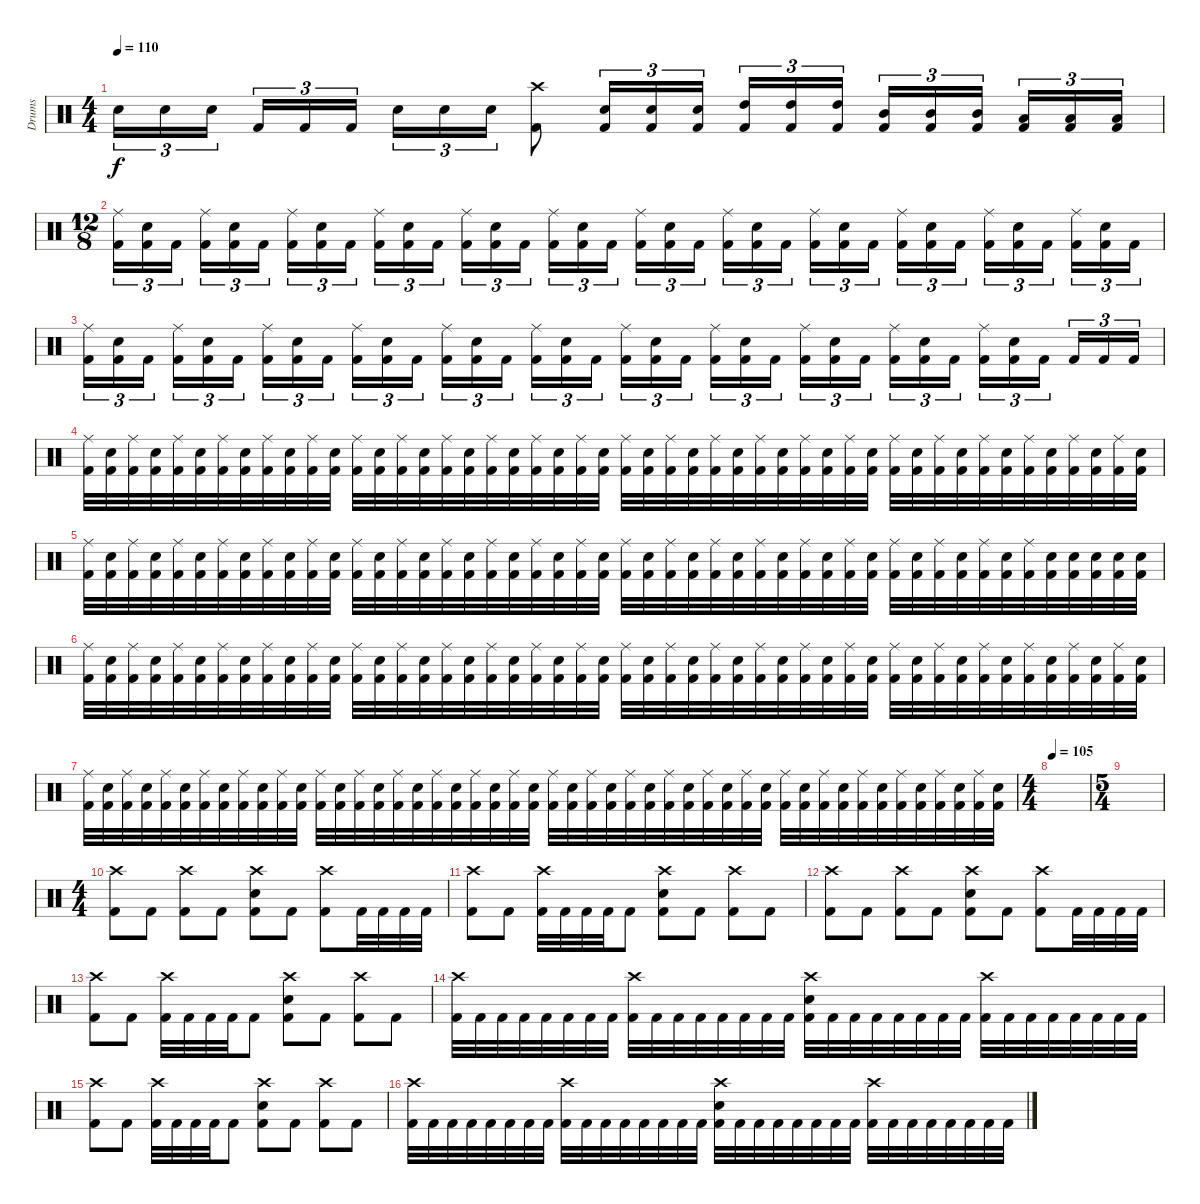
\track ("Drums" "Drums") {instrument percussion}
\staff {score}
\articulation defaults
\ts (4 4)
\tempo 110
\clef neutral
\ks c "Electric Snare (hit)".16{tu (3 2) dy f} "Electric Snare (hit)".16{tu (3 2)} "Electric Snare (hit)".16{tu (3 2) beam splitsecondary} "Kick (hit) 2".16{tu (3 2)} "Kick (hit) 2".16{tu (3 2)} "Kick (hit) 2".16{tu (3 2)} "Electric Snare (hit)".16{tu (3 2)} "Electric Snare (hit)".16{tu (3 2)} "Electric Snare (hit)".16{tu (3 2)}
("Crash high (hit)" "Kick (hit) 2").8 ("Electric Snare (hit)" "Kick (hit) 2").16{tu (3 2)} ("Electric Snare (hit)" "Kick (hit) 2").16{tu (3 2)} ("Electric Snare (hit)" "Kick (hit) 2").16{tu (3 2) beam splitsecondary} ("High Tom (hit)" "Kick (hit) 2").16{tu (3 2)} ("High Tom (hit)" "Kick (hit) 2").16{tu (3 2)} ("High Tom (hit)" "Kick (hit) 2").16{tu (3 2)} ("Mid Tom (hit)" "Kick (hit) 2").16{tu (3 2)} ("Mid Tom (hit)" "Kick (hit) 2").16{tu (3 2)} ("Mid Tom (hit)" "Kick (hit) 2").16{tu (3 2) beam splitsecondary} ("Low Tom (hit)" "Kick (hit) 2").16{tu (3 2)} ("Low Tom (hit)" "Kick (hit) 2").16{tu (3 2)} ("Low Tom (hit)" "Kick (hit) 2").16{tu (3 2)} |
\ts (12 8)
("Ride (middle)" "Kick (hit) 2").16{tu (3 2)} ("Electric Snare (hit)" "Kick (hit) 2").16{tu (3 2)} "Kick (hit) 2".16{tu (3 2) beam splitsecondary} ("Ride (middle)" "Kick (hit) 2").16{tu (3 2)} ("Electric Snare (hit)" "Kick (hit) 2").16{tu (3 2)} "Kick (hit) 2".16{tu (3 2) beam splitsecondary} ("Ride (middle)" "Kick (hit) 2").16{tu (3 2)} ("Electric Snare (hit)" "Kick (hit) 2").16{tu (3 2)} "Kick (hit) 2".16{tu (3 2)} ("Ride (middle)" "Kick (hit) 2").16{tu (3 2)} ("Electric Snare (hit)" "Kick (hit) 2").16{tu (3 2)} "Kick (hit) 2".16{tu (3 2) beam splitsecondary} ("Ride (middle)" "Kick (hit) 2").16{tu (3 2)} ("Electric Snare (hit)" "Kick (hit) 2").16{tu (3 2)} "Kick (hit) 2".16{tu (3 2) beam splitsecondary} ("Ride (middle)" "Kick (hit) 2").16{tu (3 2)} ("Electric Snare (hit)" "Kick (hit) 2").16{tu (3 2)} "Kick (hit) 2".16{tu (3 2)} ("Ride (middle)" "Kick (hit) 2").16{tu (3 2)} ("Electric Snare (hit)" "Kick (hit) 2").16{tu (3 2)} "Kick (hit) 2".16{tu (3 2) beam splitsecondary} ("Ride (middle)" "Kick (hit) 2").16{tu (3 2)} ("Electric Snare (hit)" "Kick (hit) 2").16{tu (3 2)} "Kick (hit) 2".16{tu (3 2) beam splitsecondary} ("Ride (middle)" "Kick (hit) 2").16{tu (3 2)} ("Electric Snare (hit)" "Kick (hit) 2").16{tu (3 2)} "Kick (hit) 2".16{tu (3 2)} ("Ride (middle)" "Kick (hit) 2").16{tu (3 2)} ("Electric Snare (hit)" "Kick (hit) 2").16{tu (3 2)} "Kick (hit) 2".16{tu (3 2) beam splitsecondary} ("Ride (middle)" "Kick (hit) 2").16{tu (3 2)} ("Electric Snare (hit)" "Kick (hit) 2").16{tu (3 2)} "Kick (hit) 2".16{tu (3 2) beam splitsecondary} ("Ride (middle)" "Kick (hit) 2").16{tu (3 2)} ("Electric Snare (hit)" "Kick (hit) 2").16{tu (3 2)} "Kick (hit) 2".16{tu (3 2)} |
("Ride (middle)" "Kick (hit) 2").16{tu (3 2)} ("Electric Snare (hit)" "Kick (hit) 2").16{tu (3 2)} "Kick (hit) 2".16{tu (3 2) beam splitsecondary} ("Ride (middle)" "Kick (hit) 2").16{tu (3 2)} ("Electric Snare (hit)" "Kick (hit) 2").16{tu (3 2)} "Kick (hit) 2".16{tu (3 2) beam splitsecondary} ("Ride (middle)" "Kick (hit) 2").16{tu (3 2)} ("Electric Snare (hit)" "Kick (hit) 2").16{tu (3 2)} "Kick (hit) 2".16{tu (3 2)} ("Ride (middle)" "Kick (hit) 2").16{tu (3 2)} ("Electric Snare (hit)" "Kick (hit) 2").16{tu (3 2)} "Kick (hit) 2".16{tu (3 2) beam splitsecondary} ("Ride (middle)" "Kick (hit) 2").16{tu (3 2)} ("Electric Snare (hit)" "Kick (hit) 2").16{tu (3 2)} "Kick (hit) 2".16{tu (3 2) beam splitsecondary} ("Ride (middle)" "Kick (hit) 2").16{tu (3 2)} ("Electric Snare (hit)" "Kick (hit) 2").16{tu (3 2)} "Kick (hit) 2".16{tu (3 2)} ("Ride (middle)" "Kick (hit) 2").16{tu (3 2)} ("Electric Snare (hit)" "Kick (hit) 2").16{tu (3 2)} "Kick (hit) 2".16{tu (3 2) beam splitsecondary} ("Ride (middle)" "Kick (hit) 2").16{tu (3 2)} ("Electric Snare (hit)" "Kick (hit) 2").16{tu (3 2)} "Kick (hit) 2".16{tu (3 2) beam splitsecondary} ("Ride (middle)" "Kick (hit) 2").16{tu (3 2)} ("Electric Snare (hit)" "Kick (hit) 2").16{tu (3 2)} "Kick (hit) 2".16{tu (3 2)} ("Ride (middle)" "Kick (hit) 2").16{tu (3 2)} ("Electric Snare (hit)" "Kick (hit) 2").16{tu (3 2)} "Kick (hit) 2".16{tu (3 2) beam splitsecondary} ("Ride (middle)" "Kick (hit) 2").16{tu (3 2)} ("Electric Snare (hit)" "Kick (hit) 2").16{tu (3 2)} "Kick (hit) 2".16{tu (3 2) beam splitsecondary} "Kick (hit) 2".16{tu (3 2)} "Kick (hit) 2".16{tu (3 2)} "Kick (hit) 2".16{tu (3 2)} |
("Ride (middle)" "Kick (hit) 2").32 ("Electric Snare (hit)" "Kick (hit) 2").32 ("Ride (middle)" "Kick (hit) 2").32 ("Electric Snare (hit)" "Kick (hit) 2").32 ("Ride (middle)" "Kick (hit) 2").32 ("Electric Snare (hit)" "Kick (hit) 2").32 ("Ride (middle)" "Kick (hit) 2").32 ("Electric Snare (hit)" "Kick (hit) 2").32 ("Ride (middle)" "Kick (hit) 2").32 ("Electric Snare (hit)" "Kick (hit) 2").32 ("Ride (middle)" "Kick (hit) 2").32 ("Electric Snare (hit)" "Kick (hit) 2").32 ("Ride (middle)" "Kick (hit) 2").32 ("Electric Snare (hit)" "Kick (hit) 2").32 ("Ride (middle)" "Kick (hit) 2").32 ("Electric Snare (hit)" "Kick (hit) 2").32 ("Ride (middle)" "Kick (hit) 2").32 ("Electric Snare (hit)" "Kick (hit) 2").32 ("Ride (middle)" "Kick (hit) 2").32 ("Electric Snare (hit)" "Kick (hit) 2").32 ("Ride (middle)" "Kick (hit) 2").32 ("Electric Snare (hit)" "Kick (hit) 2").32 ("Ride (middle)" "Kick (hit) 2").32 ("Electric Snare (hit)" "Kick (hit) 2").32 ("Ride (middle)" "Kick (hit) 2").32 ("Electric Snare (hit)" "Kick (hit) 2").32 ("Ride (middle)" "Kick (hit) 2").32 ("Electric Snare (hit)" "Kick (hit) 2").32 ("Ride (middle)" "Kick (hit) 2").32 ("Electric Snare (hit)" "Kick (hit) 2").32 ("Ride (middle)" "Kick (hit) 2").32 ("Electric Snare (hit)" "Kick (hit) 2").32 ("Ride (middle)" "Kick (hit) 2").32 ("Electric Snare (hit)" "Kick (hit) 2").32 ("Ride (middle)" "Kick (hit) 2").32 ("Electric Snare (hit)" "Kick (hit) 2").32 ("Ride (middle)" "Kick (hit) 2").32 ("Electric Snare (hit)" "Kick (hit) 2").32 ("Ride (middle)" "Kick (hit) 2").32 ("Electric Snare (hit)" "Kick (hit) 2").32 ("Ride (middle)" "Kick (hit) 2").32 ("Electric Snare (hit)" "Kick (hit) 2").32 ("Ride (middle)" "Kick (hit) 2").32 ("Electric Snare (hit)" "Kick (hit) 2").32 ("Ride (middle)" "Kick (hit) 2").32 ("Electric Snare (hit)" "Kick (hit) 2").32 ("Ride (middle)" "Kick (hit) 2").32 ("Electric Snare (hit)" "Kick (hit) 2").32 |
("Ride (middle)" "Kick (hit) 2").32 ("Electric Snare (hit)" "Kick (hit) 2").32 ("Ride (middle)" "Kick (hit) 2").32 ("Electric Snare (hit)" "Kick (hit) 2").32 ("Ride (middle)" "Kick (hit) 2").32 ("Electric Snare (hit)" "Kick (hit) 2").32 ("Ride (middle)" "Kick (hit) 2").32 ("Electric Snare (hit)" "Kick (hit) 2").32 ("Ride (middle)" "Kick (hit) 2").32 ("Electric Snare (hit)" "Kick (hit) 2").32 ("Ride (middle)" "Kick (hit) 2").32 ("Electric Snare (hit)" "Kick (hit) 2").32 ("Ride (middle)" "Kick (hit) 2").32 ("Electric Snare (hit)" "Kick (hit) 2").32 ("Ride (middle)" "Kick (hit) 2").32 ("Electric Snare (hit)" "Kick (hit) 2").32 ("Ride (middle)" "Kick (hit) 2").32 ("Electric Snare (hit)" "Kick (hit) 2").32 ("Ride (middle)" "Kick (hit) 2").32 ("Electric Snare (hit)" "Kick (hit) 2").32 ("Ride (middle)" "Kick (hit) 2").32 ("Electric Snare (hit)" "Kick (hit) 2").32 ("Ride (middle)" "Kick (hit) 2").32 ("Electric Snare (hit)" "Kick (hit) 2").32 ("Ride (middle)" "Kick (hit) 2").32 ("Electric Snare (hit)" "Kick (hit) 2").32 ("Ride (middle)" "Kick (hit) 2").32 ("Electric Snare (hit)" "Kick (hit) 2").32 ("Ride (middle)" "Kick (hit) 2").32 ("Electric Snare (hit)" "Kick (hit) 2").32 ("Ride (middle)" "Kick (hit) 2").32 ("Electric Snare (hit)" "Kick (hit) 2").32 ("Ride (middle)" "Kick (hit) 2").32 ("Electric Snare (hit)" "Kick (hit) 2").32 ("Ride (middle)" "Kick (hit) 2").32 ("Electric Snare (hit)" "Kick (hit) 2").32 ("Ride (middle)" "Kick (hit) 2").32 ("Electric Snare (hit)" "Kick (hit) 2").32 ("Ride (middle)" "Kick (hit) 2").32 ("Electric Snare (hit)" "Kick (hit) 2").32 ("Ride (middle)" "Kick (hit) 2").32 ("Electric Snare (hit)" "Kick (hit) 2").32 ("Ride (middle)" "Kick (hit) 2").32 ("Electric Snare (hit)" "Kick (hit) 2").32 ("Electric Snare (hit)" "Kick (hit) 2").32 ("Electric Snare (hit)" "Kick (hit) 2").32 ("Electric Snare (hit)" "Kick (hit) 2").32 ("Electric Snare (hit)" "Kick (hit) 2").32 |
("Ride (middle)" "Kick (hit) 2").32 ("Electric Snare (hit)" "Kick (hit) 2").32 ("Ride (middle)" "Kick (hit) 2").32 ("Electric Snare (hit)" "Kick (hit) 2").32 ("Ride (middle)" "Kick (hit) 2").32 ("Electric Snare (hit)" "Kick (hit) 2").32 ("Ride (middle)" "Kick (hit) 2").32 ("Electric Snare (hit)" "Kick (hit) 2").32 ("Ride (middle)" "Kick (hit) 2").32 ("Electric Snare (hit)" "Kick (hit) 2").32 ("Ride (middle)" "Kick (hit) 2").32 ("Electric Snare (hit)" "Kick (hit) 2").32 ("Ride (middle)" "Kick (hit) 2").32 ("Electric Snare (hit)" "Kick (hit) 2").32 ("Ride (middle)" "Kick (hit) 2").32 ("Electric Snare (hit)" "Kick (hit) 2").32 ("Ride (middle)" "Kick (hit) 2").32 ("Electric Snare (hit)" "Kick (hit) 2").32 ("Ride (middle)" "Kick (hit) 2").32 ("Electric Snare (hit)" "Kick (hit) 2").32 ("Ride (middle)" "Kick (hit) 2").32 ("Electric Snare (hit)" "Kick (hit) 2").32 ("Ride (middle)" "Kick (hit) 2").32 ("Electric Snare (hit)" "Kick (hit) 2").32 ("Ride (middle)" "Kick (hit) 2").32 ("Electric Snare (hit)" "Kick (hit) 2").32 ("Ride (middle)" "Kick (hit) 2").32 ("Electric Snare (hit)" "Kick (hit) 2").32 ("Ride (middle)" "Kick (hit) 2").32 ("Electric Snare (hit)" "Kick (hit) 2").32 ("Ride (middle)" "Kick (hit) 2").32 ("Electric Snare (hit)" "Kick (hit) 2").32 ("Ride (middle)" "Kick (hit) 2").32 ("Electric Snare (hit)" "Kick (hit) 2").32 ("Ride (middle)" "Kick (hit) 2").32 ("Electric Snare (hit)" "Kick (hit) 2").32 ("Ride (middle)" "Kick (hit) 2").32 ("Electric Snare (hit)" "Kick (hit) 2").32 ("Ride (middle)" "Kick (hit) 2").32 ("Electric Snare (hit)" "Kick (hit) 2").32 ("Ride (middle)" "Kick (hit) 2").32 ("Electric Snare (hit)" "Kick (hit) 2").32 ("Ride (middle)" "Kick (hit) 2").32 ("Electric Snare (hit)" "Kick (hit) 2").32 ("Ride (middle)" "Kick (hit) 2").32 ("Electric Snare (hit)" "Kick (hit) 2").32 ("Ride (middle)" "Kick (hit) 2").32 ("Electric Snare (hit)" "Kick (hit) 2").32 |
("Ride (middle)" "Kick (hit) 2").32 ("Electric Snare (hit)" "Kick (hit) 2").32 ("Ride (middle)" "Kick (hit) 2").32 ("Electric Snare (hit)" "Kick (hit) 2").32 ("Ride (middle)" "Kick (hit) 2").32 ("Electric Snare (hit)" "Kick (hit) 2").32 ("Ride (middle)" "Kick (hit) 2").32 ("Electric Snare (hit)" "Kick (hit) 2").32 ("Ride (middle)" "Kick (hit) 2").32 ("Electric Snare (hit)" "Kick (hit) 2").32 ("Ride (middle)" "Kick (hit) 2").32 ("Electric Snare (hit)" "Kick (hit) 2").32 ("Ride (middle)" "Kick (hit) 2").32 ("Electric Snare (hit)" "Kick (hit) 2").32 ("Ride (middle)" "Kick (hit) 2").32 ("Electric Snare (hit)" "Kick (hit) 2").32 ("Ride (middle)" "Kick (hit) 2").32 ("Electric Snare (hit)" "Kick (hit) 2").32 ("Ride (middle)" "Kick (hit) 2").32 ("Electric Snare (hit)" "Kick (hit) 2").32 ("Ride (middle)" "Kick (hit) 2").32 ("Electric Snare (hit)" "Kick (hit) 2").32 ("Ride (middle)" "Kick (hit) 2").32 ("Electric Snare (hit)" "Kick (hit) 2").32 ("Ride (middle)" "Kick (hit) 2").32 ("Electric Snare (hit)" "Kick (hit) 2").32 ("Ride (middle)" "Kick (hit) 2").32 ("Electric Snare (hit)" "Kick (hit) 2").32 ("Ride (middle)" "Kick (hit) 2").32 ("Electric Snare (hit)" "Kick (hit) 2").32 ("Ride (middle)" "Kick (hit) 2").32 ("Electric Snare (hit)" "Kick (hit) 2").32 ("Ride (middle)" "Kick (hit) 2").32 ("Electric Snare (hit)" "Kick (hit) 2").32 ("Ride (middle)" "Kick (hit) 2").32 ("Electric Snare (hit)" "Kick (hit) 2").32 ("Ride (middle)" "Kick (hit) 2").32 ("Electric Snare (hit)" "Kick (hit) 2").32 ("Ride (middle)" "Kick (hit) 2").32 ("Electric Snare (hit)" "Kick (hit) 2").32 ("Ride (middle)" "Kick (hit) 2").32 ("Electric Snare (hit)" "Kick (hit) 2").32 ("Ride (middle)" "Kick (hit) 2").32 ("Electric Snare (hit)" "Kick (hit) 2").32 ("Ride (middle)" "Kick (hit) 2").32 ("Electric Snare (hit)" "Kick (hit) 2").32 ("Ride (middle)" "Kick (hit) 2").32 ("Electric Snare (hit)" "Kick (hit) 2").32 |
\ts (4 4)
\tempo 105
|
\ts (5 4)
|
\ts (4 4)
("Crash high (hit)" "Kick (hit) 2").8 "Kick (hit) 2".8 ("Crash high (hit)" "Kick (hit) 2").8 "Kick (hit) 2".8 ("Crash high (hit)" "Electric Snare (hit)" "Kick (hit) 2").8 "Kick (hit) 2".8 ("Crash high (hit)" "Kick (hit) 2").8 "Kick (hit) 2".32 "Kick (hit) 2".32 "Kick (hit) 2".32 "Kick (hit) 2".32 |
("Crash high (hit)" "Kick (hit) 2").8 "Kick (hit) 2".8 ("Crash high (hit)" "Kick (hit) 2").32 "Kick (hit) 2".32 "Kick (hit) 2".32 "Kick (hit) 2".32 "Kick (hit) 2".8 ("Crash high (hit)" "Electric Snare (hit)" "Kick (hit) 2").8 "Kick (hit) 2".8 ("Crash high (hit)" "Kick (hit) 2").8 "Kick (hit) 2".8 |
("Crash high (hit)" "Kick (hit) 2").8 "Kick (hit) 2".8 ("Crash high (hit)" "Kick (hit) 2").8 "Kick (hit) 2".8 ("Crash high (hit)" "Electric Snare (hit)" "Kick (hit) 2").8 "Kick (hit) 2".8 ("Crash high (hit)" "Kick (hit) 2").8 "Kick (hit) 2".32 "Kick (hit) 2".32 "Kick (hit) 2".32 "Kick (hit) 2".32 |
("Crash high (hit)" "Kick (hit) 2").8 "Kick (hit) 2".8 ("Crash high (hit)" "Kick (hit) 2").32 "Kick (hit) 2".32 "Kick (hit) 2".32 "Kick (hit) 2".32 "Kick (hit) 2".8 ("Crash high (hit)" "Electric Snare (hit)" "Kick (hit) 2").8 "Kick (hit) 2".8 ("Crash high (hit)" "Kick (hit) 2").8 "Kick (hit) 2".8 |
("Crash high (hit)" "Kick (hit) 2").32 "Kick (hit) 2".32 "Kick (hit) 2".32 "Kick (hit) 2".32 "Kick (hit) 2".32 "Kick (hit) 2".32 "Kick (hit) 2".32 "Kick (hit) 2".32 ("Crash high (hit)" "Kick (hit) 2").32 "Kick (hit) 2".32 "Kick (hit) 2".32 "Kick (hit) 2".32 "Kick (hit) 2".32 "Kick (hit) 2".32 "Kick (hit) 2".32 "Kick (hit) 2".32 ("Crash high (hit)" "Electric Snare (hit)" "Kick (hit) 2").32 "Kick (hit) 2".32 "Kick (hit) 2".32 "Kick (hit) 2".32 "Kick (hit) 2".32 "Kick (hit) 2".32 "Kick (hit) 2".32 "Kick (hit) 2".32 ("Crash high (hit)" "Kick (hit) 2").32 "Kick (hit) 2".32 "Kick (hit) 2".32 "Kick (hit) 2".32 "Kick (hit) 2".32 "Kick (hit) 2".32 "Kick (hit) 2".32 "Kick (hit) 2".32 |
("Crash high (hit)" "Kick (hit) 2").8 "Kick (hit) 2".8 ("Crash high (hit)" "Kick (hit) 2").32 "Kick (hit) 2".32 "Kick (hit) 2".32 "Kick (hit) 2".32 "Kick (hit) 2".8 ("Crash high (hit)" "Electric Snare (hit)" "Kick (hit) 2").8 "Kick (hit) 2".8 ("Crash high (hit)" "Kick (hit) 2").8 "Kick (hit) 2".8 |
("Crash high (hit)" "Kick (hit) 2").32 "Kick (hit) 2".32 "Kick (hit) 2".32 "Kick (hit) 2".32 "Kick (hit) 2".32 "Kick (hit) 2".32 "Kick (hit) 2".32 "Kick (hit) 2".32 ("Crash high (hit)" "Kick (hit) 2").32 "Kick (hit) 2".32 "Kick (hit) 2".32 "Kick (hit) 2".32 "Kick (hit) 2".32 "Kick (hit) 2".32 "Kick (hit) 2".32 "Kick (hit) 2".32 ("Crash high (hit)" "Electric Snare (hit)" "Kick (hit) 2").32 "Kick (hit) 2".32 "Kick (hit) 2".32 "Kick (hit) 2".32 "Kick (hit) 2".32 "Kick (hit) 2".32 "Kick (hit) 2".32 "Kick (hit) 2".32 ("Crash high (hit)" "Kick (hit) 2").32 "Kick (hit) 2".32 "Kick (hit) 2".32 "Kick (hit) 2".32 "Kick (hit) 2".32 "Kick (hit) 2".32 "Kick (hit) 2".32 "Kick (hit) 2".32
